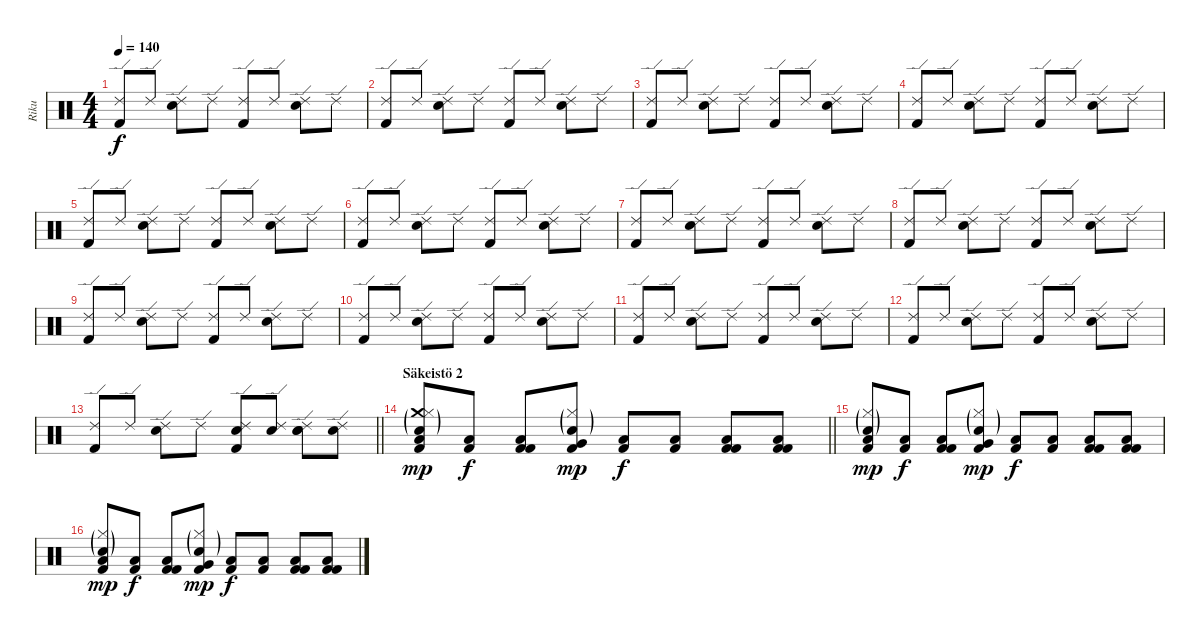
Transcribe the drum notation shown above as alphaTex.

\track ("Riku" "Riku") {instrument percussion}
\staff {score}
\articulation defaults
\ts (4 4)
\tempo 140
\clef neutral
\ks c
("Kick (hit) 2" "Ride (edge) 2").8{dy f} "Ride (edge) 2".8 ("Electric Snare (hit)" "Ride (edge) 2").8 "Ride (edge) 2".8 ("Kick (hit) 2" "Ride (edge) 2").8 "Ride (edge) 2".8 ("Electric Snare (hit)" "Ride (edge) 2").8 "Ride (edge) 2".8 |
("Kick (hit) 2" "Ride (edge) 2").8 "Ride (edge) 2".8 ("Electric Snare (hit)" "Ride (edge) 2").8 "Ride (edge) 2".8 ("Kick (hit) 2" "Ride (edge) 2").8 "Ride (edge) 2".8 ("Electric Snare (hit)" "Ride (edge) 2").8 "Ride (edge) 2".8 |
("Kick (hit) 2" "Ride (edge) 2").8 "Ride (edge) 2".8 ("Electric Snare (hit)" "Ride (edge) 2").8 "Ride (edge) 2".8 ("Kick (hit) 2" "Ride (edge) 2").8 "Ride (edge) 2".8 ("Electric Snare (hit)" "Ride (edge) 2").8 "Ride (edge) 2".8 |
("Kick (hit) 2" "Ride (edge) 2").8 "Ride (edge) 2".8 ("Electric Snare (hit)" "Ride (edge) 2").8 "Ride (edge) 2".8 ("Kick (hit) 2" "Ride (edge) 2").8 "Ride (edge) 2".8 ("Electric Snare (hit)" "Ride (edge) 2").8 "Ride (edge) 2".8 |
("Kick (hit) 2" "Ride (edge) 2").8 "Ride (edge) 2".8 ("Electric Snare (hit)" "Ride (edge) 2").8 "Ride (edge) 2".8 ("Kick (hit) 2" "Ride (edge) 2").8 "Ride (edge) 2".8 ("Electric Snare (hit)" "Ride (edge) 2").8 "Ride (edge) 2".8 |
("Kick (hit) 2" "Ride (edge) 2").8 "Ride (edge) 2".8 ("Electric Snare (hit)" "Ride (edge) 2").8 "Ride (edge) 2".8 ("Kick (hit) 2" "Ride (edge) 2").8 "Ride (edge) 2".8 ("Electric Snare (hit)" "Ride (edge) 2").8 "Ride (edge) 2".8 |
("Kick (hit) 2" "Ride (edge) 2").8 "Ride (edge) 2".8 ("Electric Snare (hit)" "Ride (edge) 2").8 "Ride (edge) 2".8 ("Kick (hit) 2" "Ride (edge) 2").8 "Ride (edge) 2".8 ("Electric Snare (hit)" "Ride (edge) 2").8 "Ride (edge) 2".8 |
("Kick (hit) 2" "Ride (edge) 2").8 "Ride (edge) 2".8 ("Electric Snare (hit)" "Ride (edge) 2").8 "Ride (edge) 2".8 ("Kick (hit) 2" "Ride (edge) 2").8 "Ride (edge) 2".8 ("Electric Snare (hit)" "Ride (edge) 2").8 "Ride (edge) 2".8 |
("Kick (hit) 2" "Ride (edge) 2").8 "Ride (edge) 2".8 ("Electric Snare (hit)" "Ride (edge) 2").8 "Ride (edge) 2".8 ("Kick (hit) 2" "Ride (edge) 2").8 "Ride (edge) 2".8 ("Electric Snare (hit)" "Ride (edge) 2").8 "Ride (edge) 2".8 |
("Kick (hit) 2" "Ride (edge) 2").8 "Ride (edge) 2".8 ("Electric Snare (hit)" "Ride (edge) 2").8 "Ride (edge) 2".8 ("Kick (hit) 2" "Ride (edge) 2").8 "Ride (edge) 2".8 ("Electric Snare (hit)" "Ride (edge) 2").8 "Ride (edge) 2".8 |
("Kick (hit) 2" "Ride (edge) 2").8 "Ride (edge) 2".8 ("Electric Snare (hit)" "Ride (edge) 2").8 "Ride (edge) 2".8 ("Kick (hit) 2" "Ride (edge) 2").8 "Ride (edge) 2".8 ("Electric Snare (hit)" "Ride (edge) 2").8 "Ride (edge) 2".8 |
("Kick (hit) 2" "Ride (edge) 2").8 "Ride (edge) 2".8 ("Electric Snare (hit)" "Ride (edge) 2").8 "Ride (edge) 2".8 ("Kick (hit) 2" "Ride (edge) 2").8 "Ride (edge) 2".8 ("Electric Snare (hit)" "Ride (edge) 2").8 "Ride (edge) 2".8 |
\barLineRight lightlight
("Kick (hit) 2" "Ride (edge) 2").8 "Ride (edge) 2".8 ("Electric Snare (hit)" "Ride (edge) 2").8 "Ride (edge) 2".8 ("Snare (hit) 2" "Kick (hit) 2" "Ride (edge) 2").8 ("Snare (hit) 2" "Ride (edge) 2").8 ("Snare (hit) 2" "Electric Snare (hit)" "Ride (edge) 2").8 ("Snare (hit) 2" "Ride (edge) 2").8 |
\section ("" "Säkeistö 2")
\barLineRight lightlight
("Crash medium (hit)"{g} "Kick (hit) 2" "Hi-Hat (closed)"{g} "Low Tom (hit)" "Electric Snare (hit)"{g}).8{dy mp} ("Kick (hit) 2" "Low Tom (hit)").8{dy f} ("Kick (hit) 2" "Low Tom (hit)" "Kick (hit) 2").8 ("Kick (hit) 2" "Hi-Hat (closed)"{g} "Very Low Tom (hit)" "Electric Snare (hit)"{g}).8{dy mp} ("Kick (hit) 2" "Low Tom (hit)").8{dy f} ("Kick (hit) 2" "Low Tom (hit)").8 ("Kick (hit) 2" "Low Tom (hit)" "Kick (hit) 2").8 ("Kick (hit) 2" "Low Tom (hit)" "Kick (hit) 2").8 |
("Kick (hit) 2" "Hi-Hat (closed)"{g} "Low Tom (hit)" "Electric Snare (hit)"{g}).8{dy mp} ("Kick (hit) 2" "Low Tom (hit)").8{dy f} ("Kick (hit) 2" "Low Tom (hit)" "Kick (hit) 2").8 ("Kick (hit) 2" "Hi-Hat (closed)"{g} "Very Low Tom (hit)" "Electric Snare (hit)"{g}).8{dy mp} ("Kick (hit) 2" "Low Tom (hit)").8{dy f} ("Kick (hit) 2" "Low Tom (hit)").8 ("Kick (hit) 2" "Low Tom (hit)" "Kick (hit) 2").8 ("Kick (hit) 2" "Low Tom (hit)" "Kick (hit) 2").8 |
("Kick (hit) 2" "Hi-Hat (closed)"{g} "Low Tom (hit)" "Electric Snare (hit)"{g}).8{dy mp} ("Kick (hit) 2" "Low Tom (hit)").8{dy f} ("Kick (hit) 2" "Low Tom (hit)" "Kick (hit) 2").8 ("Kick (hit) 2" "Hi-Hat (closed)"{g} "Very Low Tom (hit)" "Electric Snare (hit)"{g}).8{dy mp} ("Kick (hit) 2" "Low Tom (hit)").8{dy f} ("Kick (hit) 2" "Low Tom (hit)").8 ("Kick (hit) 2" "Low Tom (hit)" "Kick (hit) 2").8 ("Kick (hit) 2" "Low Tom (hit)" "Kick (hit) 2").8
